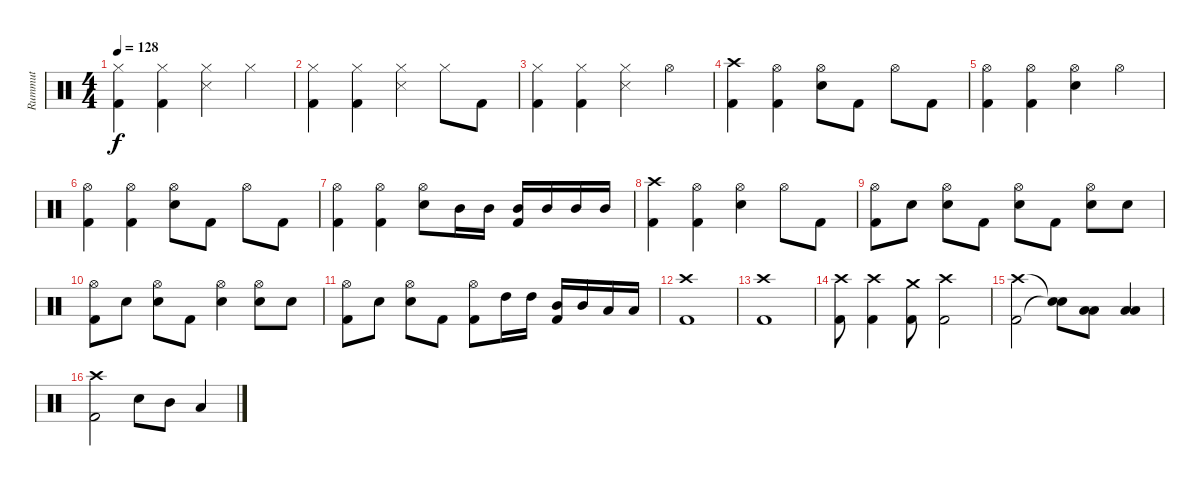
\track ("Rummut" "Rummut") {instrument percussion}
\staff {score}
\articulation defaults
\ts (4 4)
\tempo 128
\clef neutral
\ks aminor
("Hi-Hat (closed)" "Kick (hit) 2").4{dy f} ("Hi-Hat (closed)" "Kick (hit) 2").4 ("Hi-Hat (closed)" "Snare (side stick) 3").4 "Hi-Hat (closed)".4 |
("Hi-Hat (closed)" "Kick (hit) 2").4 ("Hi-Hat (closed)" "Kick (hit) 2").4 ("Hi-Hat (closed)" "Snare (side stick) 3").4 "Hi-Hat (closed)".8 "Kick (hit) 2".8 |
("Hi-Hat (closed)" "Kick (hit) 2").4 ("Hi-Hat (closed)" "Kick (hit) 2").4 ("Hi-Hat (closed)" "Snare (side stick) 3").4 "Hi-Hat (open)".4 |
("Crash high (hit)" "Kick (hit) 2").4 ("Hi-Hat (open)" "Kick (hit) 2").4 ("Hi-Hat (open)" "Electric Snare (hit)").8 "Kick (hit) 2".8 "Hi-Hat (open)".8 "Kick (hit) 2".8 |
("Hi-Hat (open)" "Kick (hit) 2").4 ("Hi-Hat (open)" "Kick (hit) 2").4 ("Hi-Hat (open)" "Electric Snare (hit)").4 "Hi-Hat (open)".4 |
("Hi-Hat (open)" "Kick (hit) 2").4 ("Hi-Hat (open)" "Kick (hit) 2").4 ("Hi-Hat (open)" "Electric Snare (hit)").8 "Kick (hit) 2".8 "Hi-Hat (open)".8 "Kick (hit) 2".8 |
("Hi-Hat (open)" "Kick (hit) 2").4 ("Hi-Hat (open)" "Kick (hit) 2").4 ("Hi-Hat (open)" "Electric Snare (hit)").8 "Mid Tom (hit)".16 "Mid Tom (hit)".16 ("Mid Tom (hit)" "Kick (hit) 2").16 "Mid Tom (hit)".16 "Mid Tom (hit)".16 "Mid Tom (hit)".16 |
("Crash high (hit)" "Kick (hit) 2").4 ("Hi-Hat (open)" "Kick (hit) 2").4 ("Hi-Hat (open)" "Electric Snare (hit)").4 "Hi-Hat (open)".8 "Kick (hit) 2".8 |
("Hi-Hat (open)" "Kick (hit) 2").8 "Electric Snare (hit)".8 ("Hi-Hat (open)" "Electric Snare (hit)").8 "Kick (hit) 2".8 ("Hi-Hat (open)" "Electric Snare (hit)").8 "Kick (hit) 2".8 ("Hi-Hat (open)" "Electric Snare (hit)").8 "Electric Snare (hit)".8 |
("Hi-Hat (open)" "Kick (hit) 2").8 "Electric Snare (hit)".8 ("Hi-Hat (open)" "Electric Snare (hit)").8 "Kick (hit) 2".8 ("Hi-Hat (open)" "Electric Snare (hit)").4 ("Hi-Hat (open)" "Electric Snare (hit)").8 "Electric Snare (hit)".8 |
("Hi-Hat (open)" "Kick (hit) 2").8 "Electric Snare (hit)".8 ("Hi-Hat (open)" "Electric Snare (hit)").8 "Kick (hit) 2".8 ("Hi-Hat (open)" "Kick (hit) 2").8 "High Tom (hit)".16 "High Tom (hit)".16 ("Mid Tom (hit)" "Kick (hit) 2").16 "Mid Tom (hit)".16 "Low Tom (hit)".16 "Low Tom (hit)".16 |
("Crash high (hit)" "Kick (hit) 2").1 |
("Crash high (hit)" "Kick (hit) 2").1 |
("Crash high (hit)" "Kick (hit) 2").8 ("Crash high (hit)" "Kick (hit) 2").4 ("Crash medium (hit)" "Kick (hit) 2").8 ("Crash high (hit)" "Kick (hit) 2").2 |
("Crash high (hit)" "Kick (hit) 2").2 ("Snare (hit)"{t} "Snare (hit)"{t}).8 ("Low Floor Tom (hit)" "Low Tom (hit)").8 ("Low Floor Tom (hit)" "Low Tom (hit)").4 |
("Crash high (hit)" "Kick (hit) 2").2 "Snare (hit) 2".8 "Mid Tom (hit)".8 "Low Tom (hit)".4
